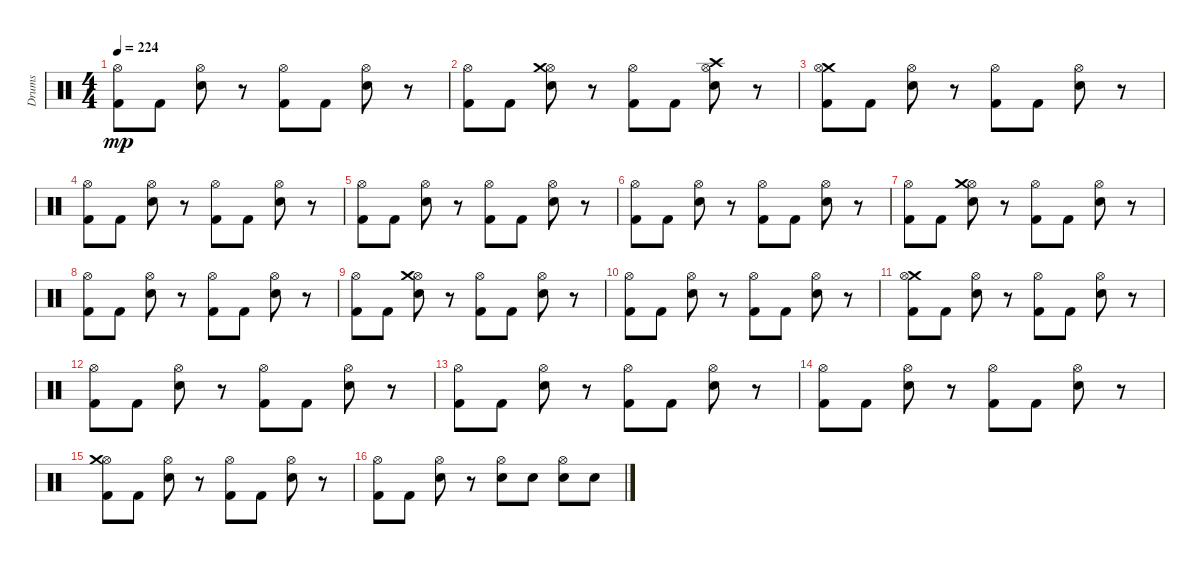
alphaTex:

\track ("Drums" "Drums") {instrument percussion}
\staff {score}
\articulation defaults
\ts (4 4)
\tempo 224
\clef neutral
\ks c
("Kick (hit) 2" "Hi-Hat (open)").8{dy mp} "Kick (hit) 2".8 ("Electric Snare (hit)" "Hi-Hat (open)").8 r.8 ("Hi-Hat (open)" "Kick (hit) 2").8 "Kick (hit) 2".8 ("Electric Snare (hit)" "Hi-Hat (open)").8 r.8 |
("Kick (hit) 2" "Hi-Hat (open)").8 "Kick (hit) 2".8 ("Electric Snare (hit)" "Hi-Hat (open)" "Crash medium (hit)").8 r.8 ("Hi-Hat (open)" "Kick (hit) 2").8 "Kick (hit) 2".8 ("Hi-Hat (open)" "Electric Snare (hit)" "Crash high (hit)").8 r.8 |
("Kick (hit) 2" "Crash medium (hit)" "Hi-Hat (open)").8 "Kick (hit) 2".8 ("Hi-Hat (open)" "Electric Snare (hit)").8 r.8 ("Kick (hit) 2" "Hi-Hat (open)").8 "Kick (hit) 2".8 ("Electric Snare (hit)" "Hi-Hat (open)").8 r.8 |
("Kick (hit) 2" "Hi-Hat (open)").8 "Kick (hit) 2".8 ("Electric Snare (hit)" "Hi-Hat (open)").8 r.8 ("Hi-Hat (open)" "Kick (hit) 2").8 "Kick (hit) 2".8 ("Electric Snare (hit)" "Hi-Hat (open)").8 r.8 |
("Hi-Hat (open)" "Kick (hit) 2").8 "Kick (hit) 2".8 ("Hi-Hat (open)" "Electric Snare (hit)").8 r.8 ("Hi-Hat (open)" "Kick (hit) 2").8 "Kick (hit) 2".8 ("Electric Snare (hit)" "Hi-Hat (open)").8 r.8 |
("Kick (hit) 2" "Hi-Hat (open)").8 "Kick (hit) 2".8 ("Electric Snare (hit)" "Hi-Hat (open)").8 r.8 ("Hi-Hat (open)" "Kick (hit) 2").8 "Kick (hit) 2".8 ("Hi-Hat (open)" "Electric Snare (hit)").8 r.8 |
("Kick (hit) 2" "Hi-Hat (open)").8 "Kick (hit) 2".8 ("Electric Snare (hit)" "Hi-Hat (open)" "Crash medium (hit)").8 r.8 ("Kick (hit) 2" "Hi-Hat (open)").8 "Kick (hit) 2".8 ("Electric Snare (hit)" "Hi-Hat (open)").8 r.8 |
("Kick (hit) 2" "Hi-Hat (open)").8 "Kick (hit) 2".8 ("Hi-Hat (open)" "Electric Snare (hit)").8 r.8 ("Hi-Hat (open)" "Kick (hit) 2").8 "Kick (hit) 2".8 ("Electric Snare (hit)" "Hi-Hat (open)").8 r.8 |
("Kick (hit) 2" "Hi-Hat (open)").8 "Kick (hit) 2".8 ("Hi-Hat (open)" "Crash medium (hit)" "Electric Snare (hit)").8 r.8 ("Hi-Hat (open)" "Kick (hit) 2").8 "Kick (hit) 2".8 ("Hi-Hat (open)" "Electric Snare (hit)").8 r.8 |
("Kick (hit) 2" "Hi-Hat (open)").8 "Kick (hit) 2".8 ("Electric Snare (hit)" "Hi-Hat (open)").8 r.8 ("Kick (hit) 2" "Hi-Hat (open)").8 "Kick (hit) 2".8 ("Hi-Hat (open)" "Electric Snare (hit)").8 r.8 |
("Crash medium (hit)" "Hi-Hat (open)" "Kick (hit) 2").8 "Kick (hit) 2".8 ("Hi-Hat (open)" "Electric Snare (hit)").8 r.8 ("Hi-Hat (open)" "Kick (hit) 2").8 "Kick (hit) 2".8 ("Hi-Hat (open)" "Electric Snare (hit)").8 r.8 |
("Kick (hit) 2" "Hi-Hat (open)").8 "Kick (hit) 2".8 ("Hi-Hat (open)" "Electric Snare (hit)").8 r.8 ("Kick (hit) 2" "Hi-Hat (open)").8 "Kick (hit) 2".8 ("Hi-Hat (open)" "Electric Snare (hit)").8 r.8 |
("Kick (hit) 2" "Hi-Hat (open)").8 "Kick (hit) 2".8 ("Electric Snare (hit)" "Hi-Hat (open)").8 r.8 ("Hi-Hat (open)" "Kick (hit) 2").8 "Kick (hit) 2".8 ("Electric Snare (hit)" "Hi-Hat (open)").8 r.8 |
("Hi-Hat (open)" "Kick (hit) 2").8 "Kick (hit) 2".8 ("Electric Snare (hit)" "Hi-Hat (open)").8 r.8 ("Hi-Hat (open)" "Kick (hit) 2").8 "Kick (hit) 2".8 ("Electric Snare (hit)" "Hi-Hat (open)").8 r.8 |
("Hi-Hat (open)" "Crash medium (hit)" "Kick (hit) 2").8 "Kick (hit) 2".8 ("Electric Snare (hit)" "Hi-Hat (open)").8 r.8 ("Kick (hit) 2" "Hi-Hat (open)").8 "Kick (hit) 2".8 ("Electric Snare (hit)" "Hi-Hat (open)").8 r.8 |
("Hi-Hat (open)" "Kick (hit) 2").8 "Kick (hit) 2".8 ("Hi-Hat (open)" "Electric Snare (hit)").8 r.8 ("Hi-Hat (open)" "Electric Snare (hit)").8 "Electric Snare (hit)".8 ("Hi-Hat (open)" "Electric Snare (hit)").8 "Electric Snare (hit)".8
